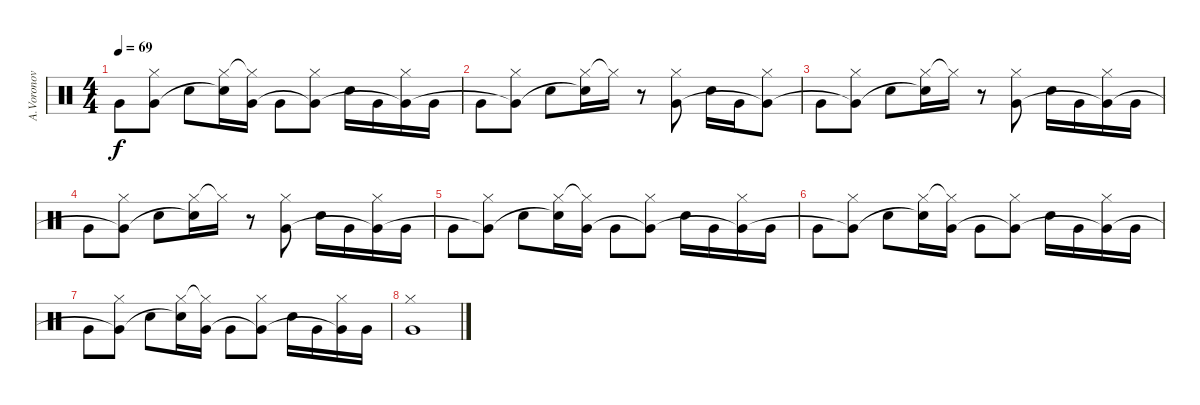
\track ("A.Voronov - Drumzzz" "A.Voronov ") {instrument percussion}
\staff {score}
\articulation defaults
\ts (4 4)
\tempo 69
\clef neutral
\ks c "Very Low Tom (hit)".8{dy f}
("Hi-Hat (closed)" "Very Low Tom (hit)"{t}).8 "Electric Snare (hit)".8 ("Hi-Hat (closed)" "Electric Snare (hit)"{t}).16 ("Hi-Hat (closed)"{t} "Very Low Tom (hit)").16 "Very Low Tom (hit)".8 ("Hi-Hat (closed)" "Very Low Tom (hit)"{t}).8 "Electric Snare (hit)".16 "Very Low Tom (hit)".16 ("Hi-Hat (closed)" "Very Low Tom (hit)"{t}).16 "Very Low Tom (hit)".16 |
"Very Low Tom (hit)".8 ("Hi-Hat (closed)" "Very Low Tom (hit)"{t}).8 "Electric Snare (hit)".8 ("Hi-Hat (closed)" "Electric Snare (hit)"{t}).16 "Hi-Hat (closed)"{t}.16 r.8 ("Hi-Hat (closed)" "Very Low Tom (hit)").8 "Electric Snare (hit)".16 "Very Low Tom (hit)".16 ("Hi-Hat (closed)" "Very Low Tom (hit)"{t}).8 |
"Very Low Tom (hit)".8 ("Hi-Hat (closed)" "Very Low Tom (hit)"{t}).8 "Electric Snare (hit)".8 ("Hi-Hat (closed)" "Electric Snare (hit)"{t}).16 "Hi-Hat (closed)"{t}.16 r.8 ("Hi-Hat (closed)" "Very Low Tom (hit)").8 "Electric Snare (hit)".16 "Very Low Tom (hit)".16 ("Hi-Hat (closed)" "Very Low Tom (hit)"{t}).16 "Very Low Tom (hit)".16 |
"Very Low Tom (hit)".8 ("Hi-Hat (closed)" "Very Low Tom (hit)"{t}).8 "Electric Snare (hit)".8 ("Hi-Hat (closed)" "Electric Snare (hit)"{t}).16 "Hi-Hat (closed)"{t}.16 r.8 ("Hi-Hat (closed)" "Very Low Tom (hit)").8 "Electric Snare (hit)".16 "Very Low Tom (hit)".16 ("Hi-Hat (closed)" "Very Low Tom (hit)"{t}).16 "Very Low Tom (hit)".16 |
"Very Low Tom (hit)".8 ("Hi-Hat (closed)" "Very Low Tom (hit)"{t}).8 "Electric Snare (hit)".8 ("Hi-Hat (closed)" "Electric Snare (hit)"{t}).16 ("Hi-Hat (closed)"{t} "Very Low Tom (hit)").16 "Very Low Tom (hit)".8 ("Hi-Hat (closed)" "Very Low Tom (hit)"{t}).8 "Electric Snare (hit)".16 "Very Low Tom (hit)".16 ("Hi-Hat (closed)" "Very Low Tom (hit)"{t}).16 "Very Low Tom (hit)".16 |
"Very Low Tom (hit)".8 ("Hi-Hat (closed)" "Very Low Tom (hit)"{t}).8 "Electric Snare (hit)".8 ("Hi-Hat (closed)" "Electric Snare (hit)"{t}).16 ("Hi-Hat (closed)"{t} "Very Low Tom (hit)").16 "Very Low Tom (hit)".8 ("Hi-Hat (closed)" "Very Low Tom (hit)"{t}).8 "Electric Snare (hit)".16 "Very Low Tom (hit)".16 ("Hi-Hat (closed)" "Very Low Tom (hit)"{t}).16 "Very Low Tom (hit)".16 |
"Very Low Tom (hit)".8 ("Hi-Hat (closed)" "Very Low Tom (hit)"{t}).8 "Electric Snare (hit)".8 ("Hi-Hat (closed)" "Electric Snare (hit)"{t}).16 ("Hi-Hat (closed)"{t} "Very Low Tom (hit)").16 "Very Low Tom (hit)".8 ("Hi-Hat (closed)" "Very Low Tom (hit)"{t}).8 "Electric Snare (hit)".16 "Very Low Tom (hit)".16 ("Hi-Hat (closed)" "Very Low Tom (hit)"{t}).16 "Very Low Tom (hit)".16 |
("Hi-Hat (closed)" "Very Low Tom (hit)").1{volume 1}
